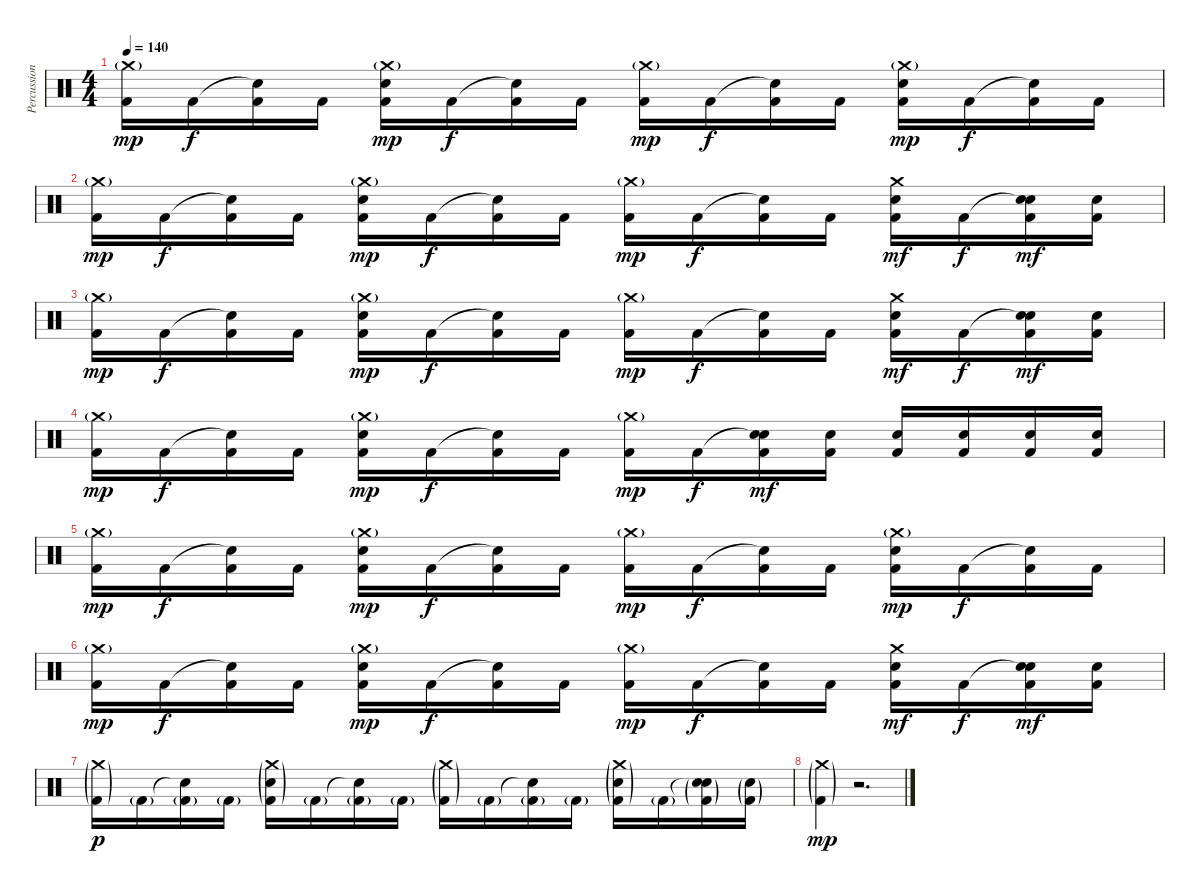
\track ("Percussion" "Percussion") {instrument percussion}
\staff {score}
\articulation defaults
\ts (4 4)
\tempo 140
\clef neutral
\ks c
("Crash medium (hit)"{g} "Kick (hit) 2").16{dy mp volume 4} "Kick (hit) 2".16{dy f} ("Snare (hit)"{t} "Kick (hit) 2").16 "Kick (hit) 2".16 ("Crash medium (hit)"{g} "Electric Snare (hit)" "Kick (hit) 2").16{dy mp} "Kick (hit) 2".16{dy f} ("Snare (hit)"{t} "Kick (hit) 2").16 "Kick (hit) 2".16 ("Crash medium (hit)"{g} "Kick (hit) 2").16{dy mp} "Kick (hit) 2".16{dy f} ("Snare (hit)"{t} "Kick (hit) 2").16 "Kick (hit) 2".16 ("Crash medium (hit)"{g} "Electric Snare (hit)" "Kick (hit) 2").16{dy mp} "Kick (hit) 2".16{dy f} ("Snare (hit)"{t} "Kick (hit) 2").16 "Kick (hit) 2".16 |
("Crash medium (hit)"{g} "Kick (hit) 2").16{dy mp} "Kick (hit) 2".16{dy f} ("Snare (hit)"{t} "Kick (hit) 2").16 "Kick (hit) 2".16 ("Crash medium (hit)"{g} "Electric Snare (hit)" "Kick (hit) 2").16{dy mp} "Kick (hit) 2".16{dy f} ("Snare (hit)"{t} "Kick (hit) 2").16 "Kick (hit) 2".16 ("Crash medium (hit)"{g} "Kick (hit) 2").16{dy mp} "Kick (hit) 2".16{dy f} ("Snare (hit)"{t} "Kick (hit) 2").16 "Kick (hit) 2".16 ("Crash medium (hit)" "Electric Snare (hit)" "Kick (hit) 2").16{dy mf} "Kick (hit) 2".16{dy f} ("Snare (hit)"{t} "Electric Snare (hit)" "Kick (hit) 2").16{dy mf} ("Electric Snare (hit)" "Kick (hit) 2").16 |
("Crash medium (hit)"{g} "Kick (hit) 2").16{dy mp} "Kick (hit) 2".16{dy f} ("Snare (hit)"{t} "Kick (hit) 2").16 "Kick (hit) 2".16 ("Crash medium (hit)"{g} "Electric Snare (hit)" "Kick (hit) 2").16{dy mp} "Kick (hit) 2".16{dy f} ("Snare (hit)"{t} "Kick (hit) 2").16 "Kick (hit) 2".16 ("Crash medium (hit)"{g} "Kick (hit) 2").16{dy mp} "Kick (hit) 2".16{dy f} ("Snare (hit)"{t} "Kick (hit) 2").16 "Kick (hit) 2".16 ("Crash medium (hit)" "Electric Snare (hit)" "Kick (hit) 2").16{dy mf} "Kick (hit) 2".16{dy f} ("Snare (hit)"{t} "Electric Snare (hit)" "Kick (hit) 2").16{dy mf} ("Electric Snare (hit)" "Kick (hit) 2").16 |
("Crash medium (hit)"{g} "Kick (hit) 2").16{dy mp} "Kick (hit) 2".16{dy f} ("Snare (hit)"{t} "Kick (hit) 2").16 "Kick (hit) 2".16 ("Crash medium (hit)"{g} "Electric Snare (hit)" "Kick (hit) 2").16{dy mp} "Kick (hit) 2".16{dy f} ("Snare (hit)"{t} "Kick (hit) 2").16 "Kick (hit) 2".16 ("Crash medium (hit)"{g} "Kick (hit) 2").16{dy mp} "Kick (hit) 2".16{dy f} ("Snare (hit)"{t} "Electric Snare (hit)" "Kick (hit) 2").16{dy mf} ("Electric Snare (hit)" "Kick (hit) 2").16 ("Electric Snare (hit)" "Kick (hit) 2").16 ("Electric Snare (hit)" "Kick (hit) 2").16 ("Electric Snare (hit)" "Kick (hit) 2").16 ("Electric Snare (hit)" "Kick (hit) 2").16 |
("Crash medium (hit)"{g} "Kick (hit) 2").16{dy mp volume 0} "Kick (hit) 2".16{dy f} ("Snare (hit)"{t} "Kick (hit) 2").16 "Kick (hit) 2".16 ("Crash medium (hit)"{g} "Electric Snare (hit)" "Kick (hit) 2").16{dy mp} "Kick (hit) 2".16{dy f} ("Snare (hit)"{t} "Kick (hit) 2").16 "Kick (hit) 2".16 ("Crash medium (hit)"{g} "Kick (hit) 2").16{dy mp} "Kick (hit) 2".16{dy f} ("Snare (hit)"{t} "Kick (hit) 2").16 "Kick (hit) 2".16 ("Crash medium (hit)"{g} "Electric Snare (hit)" "Kick (hit) 2").16{dy mp} "Kick (hit) 2".16{dy f} ("Snare (hit)"{t} "Kick (hit) 2").16 "Kick (hit) 2".16 |
("Crash medium (hit)"{g} "Kick (hit) 2").16{dy mp} "Kick (hit) 2".16{dy f} ("Snare (hit)"{t} "Kick (hit) 2").16 "Kick (hit) 2".16 ("Crash medium (hit)"{g} "Electric Snare (hit)" "Kick (hit) 2").16{dy mp} "Kick (hit) 2".16{dy f} ("Snare (hit)"{t} "Kick (hit) 2").16 "Kick (hit) 2".16 ("Crash medium (hit)"{g} "Kick (hit) 2").16{dy mp} "Kick (hit) 2".16{dy f} ("Snare (hit)"{t} "Kick (hit) 2").16 "Kick (hit) 2".16 ("Crash medium (hit)" "Electric Snare (hit)" "Kick (hit) 2").16{dy mf} "Kick (hit) 2".16{dy f} ("Snare (hit)"{t} "Electric Snare (hit)" "Kick (hit) 2").16{dy mf} ("Electric Snare (hit)" "Kick (hit) 2").16 |
("Crash medium (hit)"{g} "Kick (hit) 2"{g}).16{dy p} "Kick (hit) 2"{g}.16 ("Snare (hit)"{t} "Kick (hit) 2"{g}).16 "Kick (hit) 2"{g}.16 ("Crash medium (hit)"{g} "Electric Snare (hit)"{g} "Kick (hit) 2"{g}).16 "Kick (hit) 2"{g}.16 ("Snare (hit)"{t} "Kick (hit) 2"{g}).16 "Kick (hit) 2"{g}.16 ("Crash medium (hit)"{g} "Kick (hit) 2"{g}).16 "Kick (hit) 2"{g}.16 ("Snare (hit)"{t} "Kick (hit) 2"{g}).16 "Kick (hit) 2"{g}.16 ("Crash medium (hit)"{g} "Electric Snare (hit)"{g} "Kick (hit) 2"{g}).16 "Kick (hit) 2"{g}.16 ("Snare (hit)"{t} "Electric Snare (hit)"{g} "Kick (hit) 2"{g}).16 ("Electric Snare (hit)"{g} "Kick (hit) 2"{g}).16 |
("Crash medium (hit)"{g} "Kick (hit) 2"{g}).4{dy mp} r.2{d}
